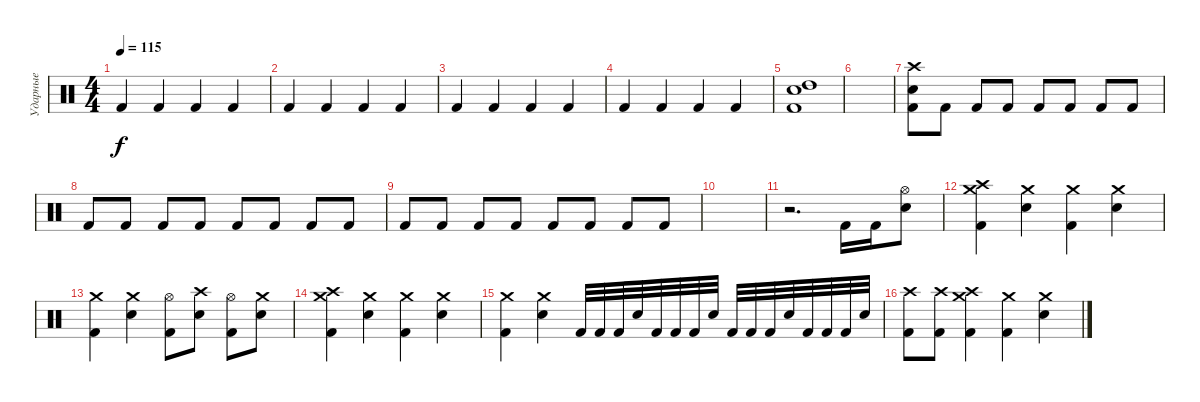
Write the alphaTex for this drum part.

\track ("Ударные" "Ударные") {instrument percussion}
\staff {score}
\articulation defaults
\ts (4 4)
\tempo 115
\clef neutral
\ks c "Kick (hit) 2".4{dy f} "Kick (hit) 2".4 "Kick (hit) 2".4 "Kick (hit) 2".4
|
"Kick (hit) 2".4 "Kick (hit) 2".4 "Kick (hit) 2".4 "Kick (hit) 2".4 |
"Kick (hit) 2".4 "Kick (hit) 2".4 "Kick (hit) 2".4 "Kick (hit) 2".4 |
"Kick (hit) 2".4 "Kick (hit) 2".4 "Kick (hit) 2".4 "Kick (hit) 2".4 |
("High Tom (hit)" "Snare (hit) 2" "Kick (hit) 2").1 |
|
("Crash high (hit)" "Snare (hit) 2" "Kick (hit) 2").8 "Kick (hit) 2".8 "Kick (hit) 2".8 "Kick (hit) 2".8 "Kick (hit) 2".8 "Kick (hit) 2".8 "Kick (hit) 2".8 "Kick (hit) 2".8 |
"Kick (hit) 2".8 "Kick (hit) 2".8 "Kick (hit) 2".8 "Kick (hit) 2".8 "Kick (hit) 2".8 "Kick (hit) 2".8 "Kick (hit) 2".8 "Kick (hit) 2".8 |
"Kick (hit) 2".8 "Kick (hit) 2".8 "Kick (hit) 2".8 "Kick (hit) 2".8 "Kick (hit) 2".8 "Kick (hit) 2".8 "Kick (hit) 2".8 "Kick (hit) 2".8 |
|
r.2{d} "Kick (hit) 2".16 "Kick (hit) 2".16 ("Hi-Hat (open)" "Snare (hit) 2").8 |
("Crash medium (hit)" "Crash high (hit)" "Kick (hit) 2").4 ("Snare (hit) 2" "Crash medium (hit)").4 ("Crash medium (hit)" "Kick (hit) 2").4 ("Snare (hit) 2" "Crash medium (hit)").4 |
("Crash medium (hit)" "Kick (hit) 2").4 ("Snare (hit) 2" "Crash medium (hit)").4 ("Hi-Hat (open)" "Kick (hit) 2").8 ("Crash high (hit)" "Snare (hit) 2").8 ("Hi-Hat (open)" "Kick (hit) 2").8 ("Crash medium (hit)" "Snare (hit) 2").8 |
("Crash medium (hit)" "Crash high (hit)" "Kick (hit) 2").4 ("Snare (hit) 2" "Crash medium (hit)").4 ("Crash medium (hit)" "Kick (hit) 2").4 ("Snare (hit) 2" "Crash medium (hit)").4 |
("Crash medium (hit)" "Kick (hit) 2").4 ("Snare (hit) 2" "Crash medium (hit)").4 "Kick (hit) 2".32 "Kick (hit) 2".32 "Kick (hit) 2".32 "Snare (hit) 2".32 "Kick (hit) 2".32 "Kick (hit) 2".32 "Kick (hit) 2".32 "Snare (hit) 2".32 "Kick (hit) 2".32 "Kick (hit) 2".32 "Kick (hit) 2".32 "Snare (hit) 2".32 "Kick (hit) 2".32 "Kick (hit) 2".32 "Kick (hit) 2".32 "Snare (hit) 2".32 |
("Crash high (hit)" "Kick (hit) 2").8 ("Crash high (hit)" "Kick (hit) 2").8 ("Crash medium (hit)" "Crash high (hit)" "Kick (hit) 2").4 ("Crash medium (hit)" "Kick (hit) 2").4 ("Snare (hit) 2" "Crash medium (hit)").4
